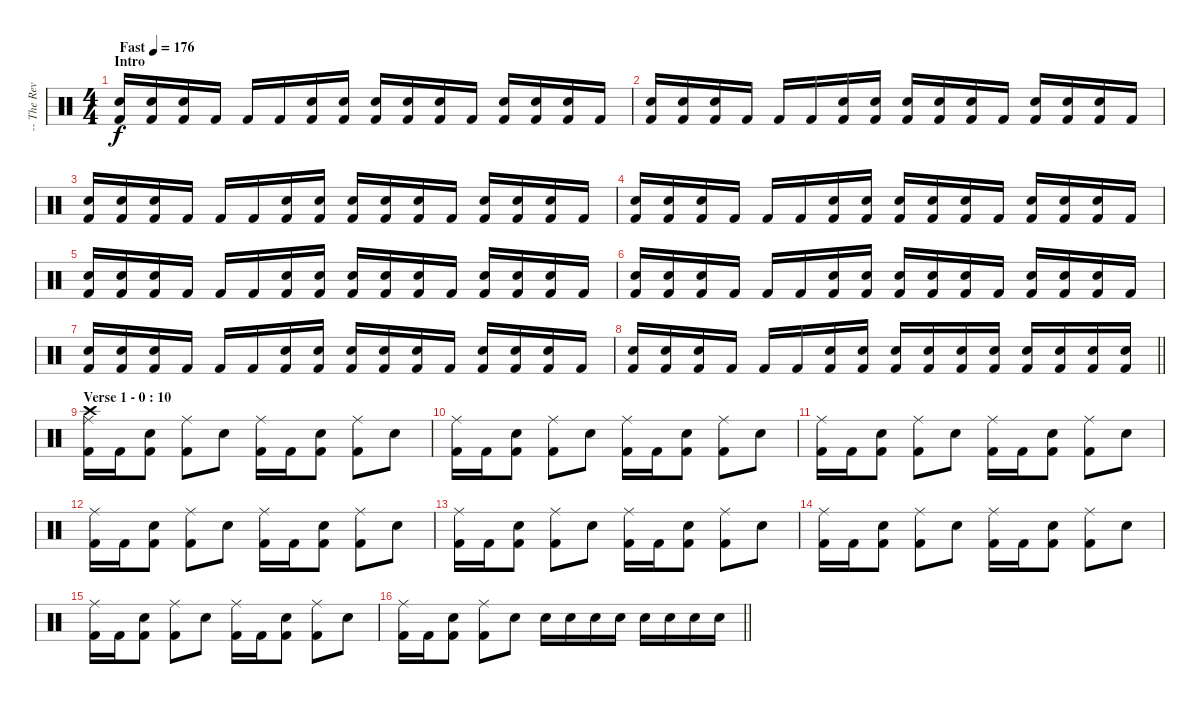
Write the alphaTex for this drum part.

\track ("-- The Reverend - Drums" "-- The Rev") {instrument percussion}
\staff {score}
\articulation defaults
\ts (4 4)
\section ("" "Intro")
\tempo (176 "Fast")
\clef neutral
\ks c
("Electric Snare (hit)" "Kick (hit) 2").16{dy f} ("Electric Snare (hit)" "Kick (hit) 2").16 ("Electric Snare (hit)" "Kick (hit) 2").16 "Kick (hit) 2".16 "Kick (hit) 2".16 "Kick (hit) 2".16 ("Electric Snare (hit)" "Kick (hit) 2").16 ("Electric Snare (hit)" "Kick (hit) 2").16 ("Electric Snare (hit)" "Kick (hit) 2").16 ("Electric Snare (hit)" "Kick (hit) 2").16 ("Electric Snare (hit)" "Kick (hit) 2").16 "Kick (hit) 2".16 ("Electric Snare (hit)" "Kick (hit) 2").16 ("Electric Snare (hit)" "Kick (hit) 2").16 ("Electric Snare (hit)" "Kick (hit) 2").16 "Kick (hit) 2".16 |
("Electric Snare (hit)" "Kick (hit) 2").16 ("Electric Snare (hit)" "Kick (hit) 2").16 ("Electric Snare (hit)" "Kick (hit) 2").16 "Kick (hit) 2".16 "Kick (hit) 2".16 "Kick (hit) 2".16 ("Electric Snare (hit)" "Kick (hit) 2").16 ("Electric Snare (hit)" "Kick (hit) 2").16 ("Electric Snare (hit)" "Kick (hit) 2").16 ("Electric Snare (hit)" "Kick (hit) 2").16 ("Electric Snare (hit)" "Kick (hit) 2").16 "Kick (hit) 2".16 ("Electric Snare (hit)" "Kick (hit) 2").16 ("Electric Snare (hit)" "Kick (hit) 2").16 ("Electric Snare (hit)" "Kick (hit) 2").16 "Kick (hit) 2".16 |
("Electric Snare (hit)" "Kick (hit) 2").16 ("Electric Snare (hit)" "Kick (hit) 2").16 ("Electric Snare (hit)" "Kick (hit) 2").16 "Kick (hit) 2".16 "Kick (hit) 2".16 "Kick (hit) 2".16 ("Electric Snare (hit)" "Kick (hit) 2").16 ("Electric Snare (hit)" "Kick (hit) 2").16 ("Electric Snare (hit)" "Kick (hit) 2").16 ("Electric Snare (hit)" "Kick (hit) 2").16 ("Electric Snare (hit)" "Kick (hit) 2").16 "Kick (hit) 2".16 ("Electric Snare (hit)" "Kick (hit) 2").16 ("Electric Snare (hit)" "Kick (hit) 2").16 ("Electric Snare (hit)" "Kick (hit) 2").16 "Kick (hit) 2".16 |
("Electric Snare (hit)" "Kick (hit) 2").16 ("Electric Snare (hit)" "Kick (hit) 2").16 ("Electric Snare (hit)" "Kick (hit) 2").16 "Kick (hit) 2".16 "Kick (hit) 2".16 "Kick (hit) 2".16 ("Electric Snare (hit)" "Kick (hit) 2").16 ("Electric Snare (hit)" "Kick (hit) 2").16 ("Electric Snare (hit)" "Kick (hit) 2").16 ("Electric Snare (hit)" "Kick (hit) 2").16 ("Electric Snare (hit)" "Kick (hit) 2").16 "Kick (hit) 2".16 ("Electric Snare (hit)" "Kick (hit) 2").16 ("Electric Snare (hit)" "Kick (hit) 2").16 ("Electric Snare (hit)" "Kick (hit) 2").16 "Kick (hit) 2".16 |
("Electric Snare (hit)" "Kick (hit) 2").16 ("Electric Snare (hit)" "Kick (hit) 2").16 ("Electric Snare (hit)" "Kick (hit) 2").16 "Kick (hit) 2".16 "Kick (hit) 2".16 "Kick (hit) 2".16 ("Electric Snare (hit)" "Kick (hit) 2").16 ("Electric Snare (hit)" "Kick (hit) 2").16 ("Electric Snare (hit)" "Kick (hit) 2").16 ("Electric Snare (hit)" "Kick (hit) 2").16 ("Electric Snare (hit)" "Kick (hit) 2").16 "Kick (hit) 2".16 ("Electric Snare (hit)" "Kick (hit) 2").16 ("Electric Snare (hit)" "Kick (hit) 2").16 ("Electric Snare (hit)" "Kick (hit) 2").16 "Kick (hit) 2".16 |
("Electric Snare (hit)" "Kick (hit) 2").16 ("Electric Snare (hit)" "Kick (hit) 2").16 ("Electric Snare (hit)" "Kick (hit) 2").16 "Kick (hit) 2".16 "Kick (hit) 2".16 "Kick (hit) 2".16 ("Electric Snare (hit)" "Kick (hit) 2").16 ("Electric Snare (hit)" "Kick (hit) 2").16 ("Electric Snare (hit)" "Kick (hit) 2").16 ("Electric Snare (hit)" "Kick (hit) 2").16 ("Electric Snare (hit)" "Kick (hit) 2").16 "Kick (hit) 2".16 ("Electric Snare (hit)" "Kick (hit) 2").16 ("Electric Snare (hit)" "Kick (hit) 2").16 ("Electric Snare (hit)" "Kick (hit) 2").16 "Kick (hit) 2".16 |
("Electric Snare (hit)" "Kick (hit) 2").16 ("Electric Snare (hit)" "Kick (hit) 2").16 ("Electric Snare (hit)" "Kick (hit) 2").16 "Kick (hit) 2".16 "Kick (hit) 2".16 "Kick (hit) 2".16 ("Electric Snare (hit)" "Kick (hit) 2").16 ("Electric Snare (hit)" "Kick (hit) 2").16 ("Electric Snare (hit)" "Kick (hit) 2").16 ("Electric Snare (hit)" "Kick (hit) 2").16 ("Electric Snare (hit)" "Kick (hit) 2").16 "Kick (hit) 2".16 ("Electric Snare (hit)" "Kick (hit) 2").16 ("Electric Snare (hit)" "Kick (hit) 2").16 ("Electric Snare (hit)" "Kick (hit) 2").16 "Kick (hit) 2".16 |
\barLineRight lightlight
("Electric Snare (hit)" "Kick (hit) 2").16 ("Electric Snare (hit)" "Kick (hit) 2").16 ("Electric Snare (hit)" "Kick (hit) 2").16 "Kick (hit) 2".16 "Kick (hit) 2".16 "Kick (hit) 2".16 ("Electric Snare (hit)" "Kick (hit) 2").16 ("Electric Snare (hit)" "Kick (hit) 2").16 ("Electric Snare (hit)" "Kick (hit) 2").16 ("Electric Snare (hit)" "Kick (hit) 2").16 ("Electric Snare (hit)" "Kick (hit) 2").16 ("Electric Snare (hit)" "Kick (hit) 2").16 ("Electric Snare (hit)" "Kick (hit) 2").16 ("Electric Snare (hit)" "Kick (hit) 2").16 ("Electric Snare (hit)" "Kick (hit) 2").16 ("Electric Snare (hit)" "Kick (hit) 2").16 |
\section ("" "Verse 1 - 0 : 10")
("Crash high (hit)" "Ride (middle)" "Kick (hit) 2").16 "Kick (hit) 2".16 ("Electric Snare (hit)" "Kick (hit) 2").8 ("Ride (middle)" "Kick (hit) 2").8 "Electric Snare (hit)".8 ("Ride (middle)" "Kick (hit) 2").16 "Kick (hit) 2".16 ("Electric Snare (hit)" "Kick (hit) 2").8 ("Ride (middle)" "Kick (hit) 2").8 "Electric Snare (hit)".8 |
("Ride (middle)" "Kick (hit) 2").16 "Kick (hit) 2".16 ("Electric Snare (hit)" "Kick (hit) 2").8 ("Ride (middle)" "Kick (hit) 2").8 "Electric Snare (hit)".8 ("Ride (middle)" "Kick (hit) 2").16 "Kick (hit) 2".16 ("Electric Snare (hit)" "Kick (hit) 2").8 ("Ride (middle)" "Kick (hit) 2").8 "Electric Snare (hit)".8 |
("Ride (middle)" "Kick (hit) 2").16 "Kick (hit) 2".16 ("Electric Snare (hit)" "Kick (hit) 2").8 ("Ride (middle)" "Kick (hit) 2").8 "Electric Snare (hit)".8 ("Ride (middle)" "Kick (hit) 2").16 "Kick (hit) 2".16 ("Electric Snare (hit)" "Kick (hit) 2").8 ("Ride (middle)" "Kick (hit) 2").8 "Electric Snare (hit)".8 |
("Ride (middle)" "Kick (hit) 2").16 "Kick (hit) 2".16 ("Electric Snare (hit)" "Kick (hit) 2").8 ("Ride (middle)" "Kick (hit) 2").8 "Electric Snare (hit)".8 ("Ride (middle)" "Kick (hit) 2").16 "Kick (hit) 2".16 ("Electric Snare (hit)" "Kick (hit) 2").8 ("Ride (middle)" "Kick (hit) 2").8 "Electric Snare (hit)".8 |
("Ride (middle)" "Kick (hit) 2").16 "Kick (hit) 2".16 ("Electric Snare (hit)" "Kick (hit) 2").8 ("Ride (middle)" "Kick (hit) 2").8 "Electric Snare (hit)".8 ("Ride (middle)" "Kick (hit) 2").16 "Kick (hit) 2".16 ("Electric Snare (hit)" "Kick (hit) 2").8 ("Ride (middle)" "Kick (hit) 2").8 "Electric Snare (hit)".8 |
("Ride (middle)" "Kick (hit) 2").16 "Kick (hit) 2".16 ("Electric Snare (hit)" "Kick (hit) 2").8 ("Ride (middle)" "Kick (hit) 2").8 "Electric Snare (hit)".8 ("Ride (middle)" "Kick (hit) 2").16 "Kick (hit) 2".16 ("Electric Snare (hit)" "Kick (hit) 2").8 ("Ride (middle)" "Kick (hit) 2").8 "Electric Snare (hit)".8 |
("Ride (middle)" "Kick (hit) 2").16 "Kick (hit) 2".16 ("Electric Snare (hit)" "Kick (hit) 2").8 ("Ride (middle)" "Kick (hit) 2").8 "Electric Snare (hit)".8 ("Ride (middle)" "Kick (hit) 2").16 "Kick (hit) 2".16 ("Electric Snare (hit)" "Kick (hit) 2").8 ("Ride (middle)" "Kick (hit) 2").8 "Electric Snare (hit)".8 |
\barLineRight lightlight
("Ride (middle)" "Kick (hit) 2").16 "Kick (hit) 2".16 ("Electric Snare (hit)" "Kick (hit) 2").8 ("Ride (middle)" "Kick (hit) 2").8 "Electric Snare (hit)".8 "Electric Snare (hit)".16 "Electric Snare (hit)".16 "Electric Snare (hit)".16 "Electric Snare (hit)".16 "Electric Snare (hit)".16 "Electric Snare (hit)".16 "Electric Snare (hit)".16 "Electric Snare (hit)".16
